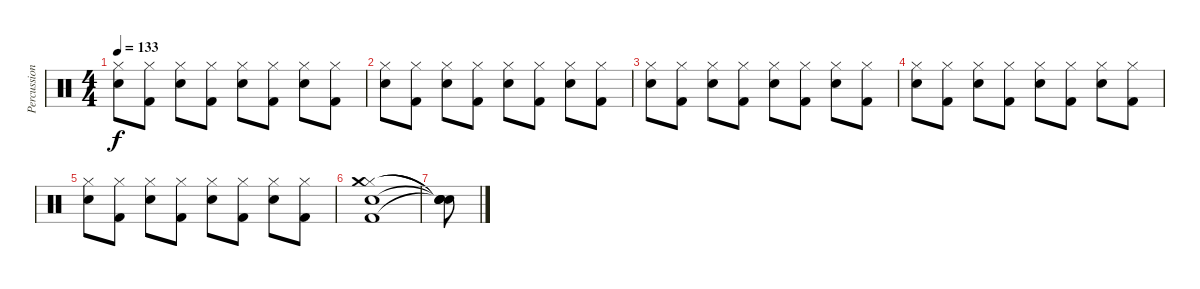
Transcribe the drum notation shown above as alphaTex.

\track ("Percussion" "Percussion") {instrument percussion}
\staff {score}
\articulation defaults
\ts (4 4)
\tempo 133
\clef neutral
\ks c
("Snare (hit) 2" "Hi-Hat (closed)").8{dy f} ("Kick (hit) 2" "Hi-Hat (closed)").8 ("Snare (hit) 2" "Hi-Hat (closed)").8 ("Kick (hit) 2" "Hi-Hat (closed)").8 ("Snare (hit) 2" "Hi-Hat (closed)").8 ("Kick (hit) 2" "Hi-Hat (closed)").8 ("Snare (hit) 2" "Hi-Hat (closed)").8 ("Kick (hit) 2" "Hi-Hat (closed)").8 |
("Snare (hit) 2" "Hi-Hat (closed)").8 ("Kick (hit) 2" "Hi-Hat (closed)").8 ("Snare (hit) 2" "Hi-Hat (closed)").8 ("Kick (hit) 2" "Hi-Hat (closed)").8 ("Snare (hit) 2" "Hi-Hat (closed)").8 ("Kick (hit) 2" "Hi-Hat (closed)").8 ("Snare (hit) 2" "Hi-Hat (closed)").8 ("Kick (hit) 2" "Hi-Hat (closed)").8 |
("Snare (hit) 2" "Hi-Hat (closed)").8 ("Kick (hit) 2" "Hi-Hat (closed)").8 ("Snare (hit) 2" "Hi-Hat (closed)").8 ("Kick (hit) 2" "Hi-Hat (closed)").8 ("Snare (hit) 2" "Hi-Hat (closed)").8 ("Kick (hit) 2" "Hi-Hat (closed)").8 ("Snare (hit) 2" "Hi-Hat (closed)").8 ("Kick (hit) 2" "Hi-Hat (closed)").8 |
("Snare (hit) 2" "Hi-Hat (closed)").8 ("Kick (hit) 2" "Hi-Hat (closed)").8 ("Snare (hit) 2" "Hi-Hat (closed)").8 ("Kick (hit) 2" "Hi-Hat (closed)").8 ("Snare (hit) 2" "Hi-Hat (closed)").8 ("Kick (hit) 2" "Hi-Hat (closed)").8 ("Snare (hit) 2" "Hi-Hat (closed)").8 ("Kick (hit) 2" "Hi-Hat (closed)").8 |
("Snare (hit) 2" "Hi-Hat (closed)").8 ("Kick (hit) 2" "Hi-Hat (closed)").8 ("Snare (hit) 2" "Hi-Hat (closed)").8 ("Kick (hit) 2" "Hi-Hat (closed)").8 ("Snare (hit) 2" "Hi-Hat (closed)").8 ("Kick (hit) 2" "Hi-Hat (closed)").8 ("Snare (hit) 2" "Hi-Hat (closed)").8 ("Kick (hit) 2" "Hi-Hat (closed)").8 |
("Kick (hit) 2" "Snare (hit) 2" "Hi-Hat (closed)" "Crash medium (hit)").1 |
("Snare (hit)"{t} "Snare (hit)"{t} "Snare (hit)"{t} "Snare (hit)"{t}).8
